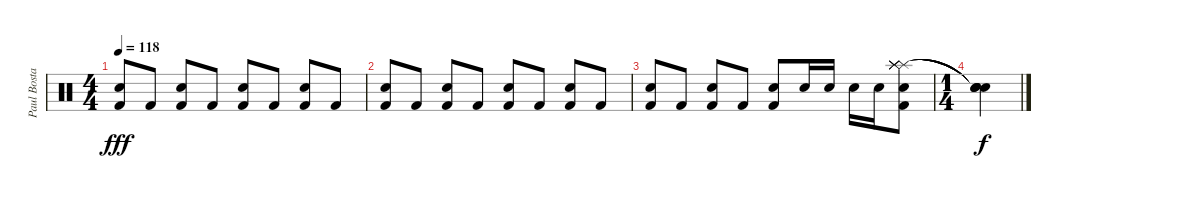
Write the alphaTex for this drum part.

\track ("Paul Bostaph" "Paul Bosta") {instrument percussion}
\staff {score}
\articulation defaults
\ts (4 4)
\tempo 118
\clef neutral
\ks c
("Snare (hit) 2" "Kick (hit) 2").8{dy fff} "Kick (hit) 2".8 ("Snare (hit) 2" "Kick (hit) 2").8 "Kick (hit) 2".8 ("Snare (hit) 2" "Kick (hit) 2").8 "Kick (hit) 2".8 ("Snare (hit) 2" "Kick (hit) 2").8 "Kick (hit) 2".8 |
("Snare (hit) 2" "Kick (hit) 2").8 "Kick (hit) 2".8 ("Snare (hit) 2" "Kick (hit) 2").8 "Kick (hit) 2".8 ("Snare (hit) 2" "Kick (hit) 2").8 "Kick (hit) 2".8 ("Snare (hit) 2" "Kick (hit) 2").8 "Kick (hit) 2".8 |
("Snare (hit) 2" "Kick (hit) 2").8 "Kick (hit) 2".8 ("Snare (hit) 2" "Kick (hit) 2").8 "Kick (hit) 2".8 ("Snare (hit) 2" "Kick (hit) 2").8 "Snare (hit) 2".16 "Snare (hit) 2".16 "Snare (hit) 2".16 "Snare (hit) 2".16 ("Splash (hit)" "Splash (hit)" "Splash (hit)" "Splash (hit)" "Snare (hit) 2" "Kick (hit) 2").8 |
\ts (1 4)
("Snare (hit)"{t} "Snare (hit)"{t} "Snare (hit)"{t} "Snare (hit)"{t}).4{dy f}
